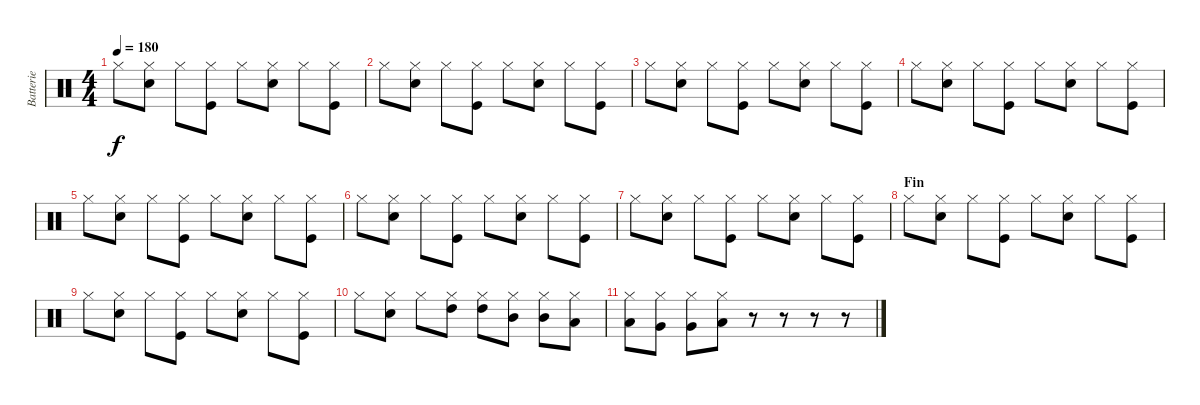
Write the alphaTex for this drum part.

\track ("Batterie" "Batterie") {instrument percussion}
\staff {score}
\articulation defaults
\ts (4 4)
\tempo 180
\clef neutral
\ks c "Hi-Hat (closed)".8{dy f}
("Hi-Hat (closed)" "Snare (hit) 2").8 "Hi-Hat (closed)".8 ("Hi-Hat (closed)" "Kick (hit)").8 "Hi-Hat (closed)".8 ("Hi-Hat (closed)" "Snare (hit) 2").8 "Hi-Hat (closed)".8 ("Hi-Hat (closed)" "Kick (hit)").8 |
"Hi-Hat (closed)".8 ("Hi-Hat (closed)" "Snare (hit) 2").8 "Hi-Hat (closed)".8 ("Hi-Hat (closed)" "Kick (hit)").8 "Hi-Hat (closed)".8 ("Hi-Hat (closed)" "Snare (hit) 2").8 "Hi-Hat (closed)".8 ("Hi-Hat (closed)" "Kick (hit)").8 |
"Hi-Hat (closed)".8 ("Hi-Hat (closed)" "Snare (hit) 2").8 "Hi-Hat (closed)".8 ("Hi-Hat (closed)" "Kick (hit)").8 "Hi-Hat (closed)".8 ("Hi-Hat (closed)" "Snare (hit) 2").8 "Hi-Hat (closed)".8 ("Hi-Hat (closed)" "Kick (hit)").8 |
"Hi-Hat (closed)".8 ("Hi-Hat (closed)" "Snare (hit) 2").8 "Hi-Hat (closed)".8 ("Hi-Hat (closed)" "Kick (hit)").8 "Hi-Hat (closed)".8 ("Hi-Hat (closed)" "Snare (hit) 2").8 "Hi-Hat (closed)".8 ("Hi-Hat (closed)" "Kick (hit)").8 |
"Hi-Hat (closed)".8 ("Hi-Hat (closed)" "Snare (hit) 2").8 "Hi-Hat (closed)".8 ("Hi-Hat (closed)" "Kick (hit)").8 "Hi-Hat (closed)".8 ("Hi-Hat (closed)" "Snare (hit) 2").8 "Hi-Hat (closed)".8 ("Hi-Hat (closed)" "Kick (hit)").8 |
"Hi-Hat (closed)".8 ("Hi-Hat (closed)" "Snare (hit) 2").8 "Hi-Hat (closed)".8 ("Hi-Hat (closed)" "Kick (hit)").8 "Hi-Hat (closed)".8 ("Hi-Hat (closed)" "Snare (hit) 2").8 "Hi-Hat (closed)".8 ("Hi-Hat (closed)" "Kick (hit)").8 |
"Hi-Hat (closed)".8 ("Hi-Hat (closed)" "Snare (hit) 2").8 "Hi-Hat (closed)".8 ("Hi-Hat (closed)" "Kick (hit)").8 "Hi-Hat (closed)".8 ("Hi-Hat (closed)" "Snare (hit) 2").8 "Hi-Hat (closed)".8 ("Hi-Hat (closed)" "Kick (hit)").8 |
\section ("" "Fin")
"Hi-Hat (closed)".8 ("Hi-Hat (closed)" "Snare (hit) 2").8 "Hi-Hat (closed)".8 ("Hi-Hat (closed)" "Kick (hit)").8 "Hi-Hat (closed)".8 ("Hi-Hat (closed)" "Snare (hit) 2").8 "Hi-Hat (closed)".8 ("Hi-Hat (closed)" "Kick (hit)").8 |
"Hi-Hat (closed)".8 ("Hi-Hat (closed)" "Snare (hit) 2").8 "Hi-Hat (closed)".8 ("Hi-Hat (closed)" "Kick (hit)").8 "Hi-Hat (closed)".8 ("Hi-Hat (closed)" "Snare (hit) 2").8 "Hi-Hat (closed)".8 ("Hi-Hat (closed)" "Kick (hit)").8 |
"Hi-Hat (closed)".8 ("Hi-Hat (closed)" "Snare (hit) 2").8 "Hi-Hat (closed)".8 ("Hi-Hat (closed)" "High Tom (hit)").8{balance 16} ("Hi-Hat (closed)" "High Tom (hit)").8{balance 14} ("Hi-Hat (closed)" "Mid Tom (hit)").8{balance 12} ("Hi-Hat (closed)" "Mid Tom (hit)").8{balance 10} ("Hi-Hat (closed)" "Low Tom (hit)").8{balance 8} |
("Hi-Hat (closed)" "Low Tom (hit)").8{balance 6} ("Hi-Hat (closed)" "Very Low Tom (hit)").8{balance 4} ("Hi-Hat (closed)" "Very Low Tom (hit)").8{balance 2} ("Hi-Hat (closed)" "Low Floor Tom (hit)").8{balance 0} r.8 r.8 r.8 r.8
